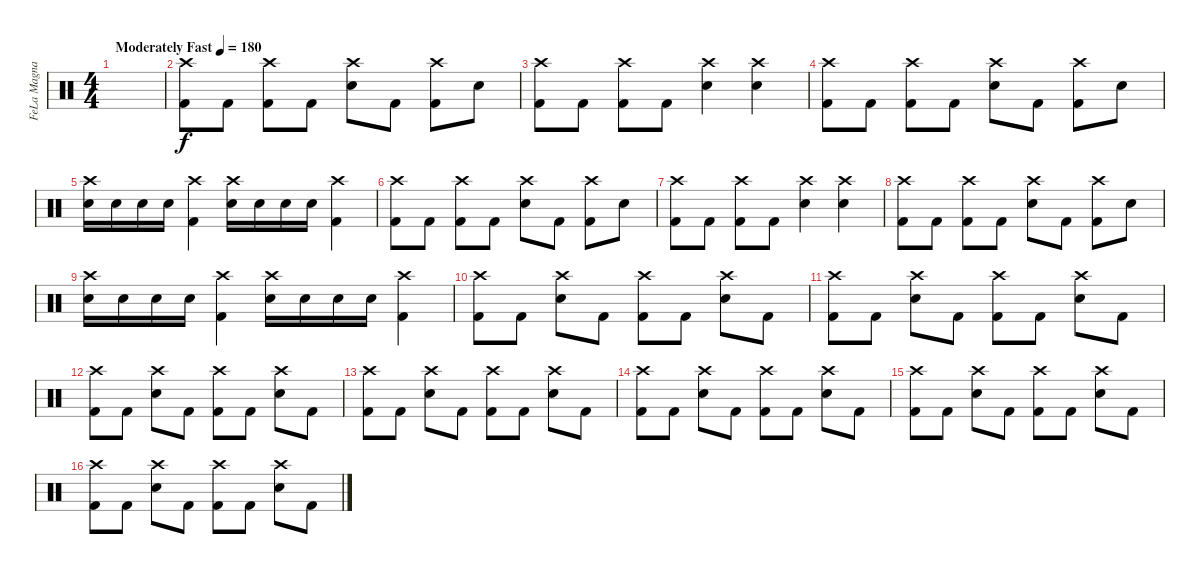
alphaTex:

\track ("FeLa Magnani" "FeLa Magna") {instrument percussion}
\staff {score}
\articulation defaults
\ts (4 4)
\tempo (180 "Moderately Fast")
\clef neutral
\ks c
|
("Kick (hit) 2" "Crash high (hit)").8 "Kick (hit) 2".8 ("Kick (hit) 2" "Crash high (hit)").8 "Kick (hit) 2".8 ("Electric Snare (hit)" "Crash high (hit)").8 "Kick (hit) 2".8 ("Kick (hit) 2" "Crash high (hit)").8 "Electric Snare (hit)".8 |
("Kick (hit) 2" "Crash high (hit)").8 "Kick (hit) 2".8 ("Kick (hit) 2" "Crash high (hit)").8 "Kick (hit) 2".8 ("Electric Snare (hit)" "Crash high (hit)").4 ("Electric Snare (hit)" "Crash high (hit)").4 |
("Kick (hit) 2" "Crash high (hit)").8 "Kick (hit) 2".8 ("Kick (hit) 2" "Crash high (hit)").8 "Kick (hit) 2".8 ("Electric Snare (hit)" "Crash high (hit)").8 "Kick (hit) 2".8 ("Kick (hit) 2" "Crash high (hit)").8 "Electric Snare (hit)".8 |
("Crash high (hit)" "Electric Snare (hit)").16 "Electric Snare (hit)".16 "Electric Snare (hit)".16 "Electric Snare (hit)".16 ("Crash high (hit)" "Kick (hit) 2").4 ("Crash high (hit)" "Electric Snare (hit)").16 "Electric Snare (hit)".16 "Electric Snare (hit)".16 "Electric Snare (hit)".16 ("Crash high (hit)" "Kick (hit) 2").4 |
("Kick (hit) 2" "Crash high (hit)").8 "Kick (hit) 2".8 ("Kick (hit) 2" "Crash high (hit)").8 "Kick (hit) 2".8 ("Electric Snare (hit)" "Crash high (hit)").8 "Kick (hit) 2".8 ("Kick (hit) 2" "Crash high (hit)").8 "Electric Snare (hit)".8 |
("Kick (hit) 2" "Crash high (hit)").8 "Kick (hit) 2".8 ("Kick (hit) 2" "Crash high (hit)").8 "Kick (hit) 2".8 ("Electric Snare (hit)" "Crash high (hit)").4 ("Electric Snare (hit)" "Crash high (hit)").4 |
("Kick (hit) 2" "Crash high (hit)").8 "Kick (hit) 2".8 ("Kick (hit) 2" "Crash high (hit)").8 "Kick (hit) 2".8 ("Electric Snare (hit)" "Crash high (hit)").8 "Kick (hit) 2".8 ("Kick (hit) 2" "Crash high (hit)").8 "Electric Snare (hit)".8 |
("Crash high (hit)" "Electric Snare (hit)").16 "Electric Snare (hit)".16 "Electric Snare (hit)".16 "Electric Snare (hit)".16 ("Crash high (hit)" "Kick (hit) 2").4 ("Crash high (hit)" "Electric Snare (hit)").16 "Electric Snare (hit)".16 "Electric Snare (hit)".16 "Electric Snare (hit)".16 ("Crash high (hit)" "Kick (hit) 2").4 |
("Crash high (hit)" "Kick (hit) 2").8 "Kick (hit) 2".8 ("Crash high (hit)" "Electric Snare (hit)").8 "Kick (hit) 2".8 ("Crash high (hit)" "Kick (hit) 2").8 "Kick (hit) 2".8 ("Crash high (hit)" "Electric Snare (hit)").8 "Kick (hit) 2".8 |
("Crash high (hit)" "Kick (hit) 2").8 "Kick (hit) 2".8 ("Crash high (hit)" "Electric Snare (hit)").8 "Kick (hit) 2".8 ("Crash high (hit)" "Kick (hit) 2").8 "Kick (hit) 2".8 ("Crash high (hit)" "Electric Snare (hit)").8 "Kick (hit) 2".8 |
("Crash high (hit)" "Kick (hit) 2").8 "Kick (hit) 2".8 ("Crash high (hit)" "Electric Snare (hit)").8 "Kick (hit) 2".8 ("Crash high (hit)" "Kick (hit) 2").8 "Kick (hit) 2".8 ("Crash high (hit)" "Electric Snare (hit)").8 "Kick (hit) 2".8 |
("Crash high (hit)" "Kick (hit) 2").8 "Kick (hit) 2".8 ("Crash high (hit)" "Electric Snare (hit)").8 "Kick (hit) 2".8 ("Crash high (hit)" "Kick (hit) 2").8 "Kick (hit) 2".8 ("Crash high (hit)" "Electric Snare (hit)").8 "Kick (hit) 2".8 |
("Crash high (hit)" "Kick (hit) 2").8 "Kick (hit) 2".8 ("Crash high (hit)" "Electric Snare (hit)").8 "Kick (hit) 2".8 ("Crash high (hit)" "Kick (hit) 2").8 "Kick (hit) 2".8 ("Crash high (hit)" "Electric Snare (hit)").8 "Kick (hit) 2".8 |
("Crash high (hit)" "Kick (hit) 2").8 "Kick (hit) 2".8 ("Crash high (hit)" "Electric Snare (hit)").8 "Kick (hit) 2".8 ("Crash high (hit)" "Kick (hit) 2").8 "Kick (hit) 2".8 ("Crash high (hit)" "Electric Snare (hit)").8 "Kick (hit) 2".8 |
("Crash high (hit)" "Kick (hit) 2").8 "Kick (hit) 2".8 ("Crash high (hit)" "Electric Snare (hit)").8 "Kick (hit) 2".8 ("Crash high (hit)" "Kick (hit) 2").8 "Kick (hit) 2".8 ("Crash high (hit)" "Electric Snare (hit)").8 "Kick (hit) 2".8
